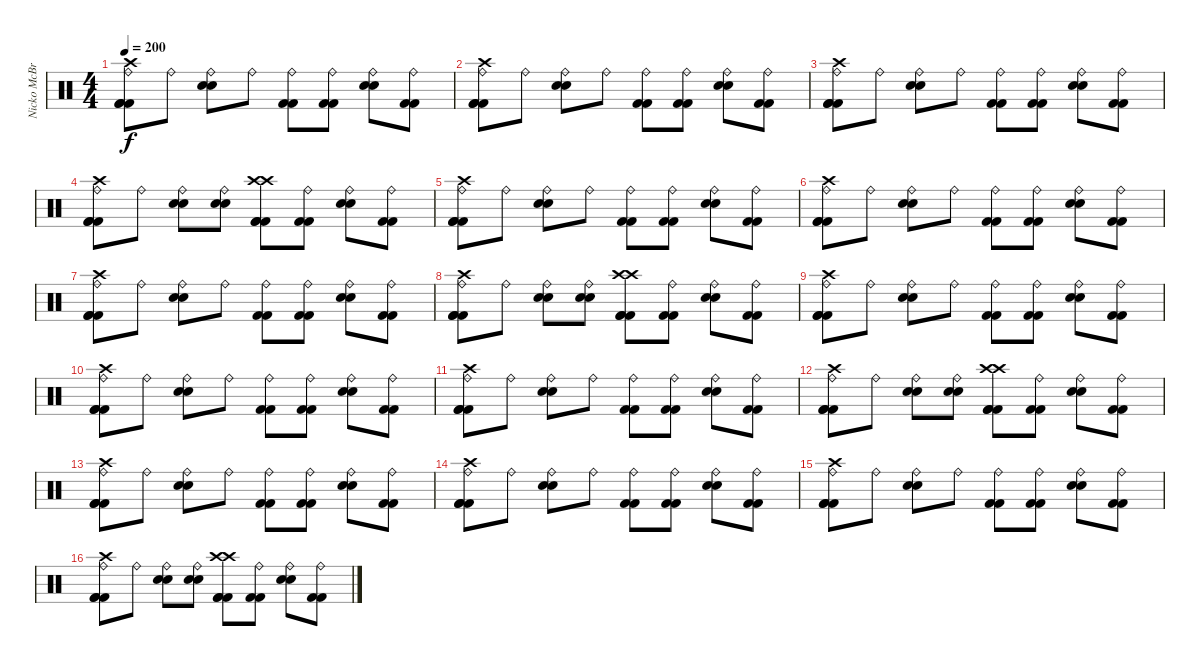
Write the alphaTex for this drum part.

\track ("Nicko McBrain" "Nicko McBr") {instrument percussion}
\staff {score}
\articulation defaults
\ts (4 4)
\tempo 200
\clef neutral
\ks c
("Crash high (hit)" "Ride (bell)" "Kick (hit) 2" "Kick (hit) 2" "Kick (hit) 2").8{dy f} "Ride (bell)".8 ("Ride (bell)" "Snare (hit) 2" "Snare (hit) 2").8 "Ride (bell)".8 ("Ride (bell)" "Kick (hit) 2" "Kick (hit) 2").8 ("Ride (bell)" "Kick (hit) 2" "Kick (hit) 2").8 ("Ride (bell)" "Snare (hit) 2" "Snare (hit) 2").8 ("Ride (bell)" "Kick (hit) 2" "Kick (hit) 2").8 |
("Crash high (hit)" "Ride (bell)" "Kick (hit) 2" "Kick (hit) 2" "Kick (hit) 2").8 "Ride (bell)".8 ("Ride (bell)" "Snare (hit) 2" "Snare (hit) 2").8 "Ride (bell)".8 ("Ride (bell)" "Kick (hit) 2" "Kick (hit) 2").8 ("Ride (bell)" "Kick (hit) 2" "Kick (hit) 2").8 ("Ride (bell)" "Snare (hit) 2" "Snare (hit) 2").8 ("Ride (bell)" "Kick (hit) 2" "Kick (hit) 2").8 |
("Crash high (hit)" "Ride (bell)" "Kick (hit) 2" "Kick (hit) 2" "Kick (hit) 2").8 "Ride (bell)".8 ("Ride (bell)" "Snare (hit) 2" "Snare (hit) 2").8 "Ride (bell)".8 ("Ride (bell)" "Kick (hit) 2" "Kick (hit) 2").8 ("Ride (bell)" "Kick (hit) 2" "Kick (hit) 2").8 ("Ride (bell)" "Snare (hit) 2" "Snare (hit) 2").8 ("Ride (bell)" "Kick (hit) 2" "Kick (hit) 2").8 |
("Crash high (hit)" "Ride (bell)" "Kick (hit) 2" "Kick (hit) 2" "Kick (hit) 2").8 "Ride (bell)".8 ("Ride (bell)" "Snare (hit) 2" "Snare (hit) 2").8 ("Ride (bell)" "Snare (hit) 2" "Snare (hit) 2").8 ("Crash high (hit)" "Crash high (hit)" "Kick (hit) 2" "Kick (hit) 2" "Kick (hit) 2").8 ("Ride (bell)" "Kick (hit) 2" "Kick (hit) 2").8 ("Ride (bell)" "Snare (hit) 2" "Snare (hit) 2").8 ("Ride (bell)" "Kick (hit) 2" "Kick (hit) 2").8 |
("Crash high (hit)" "Ride (bell)" "Kick (hit) 2" "Kick (hit) 2" "Kick (hit) 2").8 "Ride (bell)".8 ("Ride (bell)" "Snare (hit) 2" "Snare (hit) 2").8 "Ride (bell)".8 ("Ride (bell)" "Kick (hit) 2" "Kick (hit) 2").8 ("Ride (bell)" "Kick (hit) 2" "Kick (hit) 2").8 ("Ride (bell)" "Snare (hit) 2" "Snare (hit) 2").8 ("Ride (bell)" "Kick (hit) 2" "Kick (hit) 2").8 |
("Crash high (hit)" "Ride (bell)" "Kick (hit) 2" "Kick (hit) 2" "Kick (hit) 2").8 "Ride (bell)".8 ("Ride (bell)" "Snare (hit) 2" "Snare (hit) 2").8 "Ride (bell)".8 ("Ride (bell)" "Kick (hit) 2" "Kick (hit) 2").8 ("Ride (bell)" "Kick (hit) 2" "Kick (hit) 2").8 ("Ride (bell)" "Snare (hit) 2" "Snare (hit) 2").8 ("Ride (bell)" "Kick (hit) 2" "Kick (hit) 2").8 |
("Crash high (hit)" "Ride (bell)" "Kick (hit) 2" "Kick (hit) 2" "Kick (hit) 2").8 "Ride (bell)".8 ("Ride (bell)" "Snare (hit) 2" "Snare (hit) 2").8 "Ride (bell)".8 ("Ride (bell)" "Kick (hit) 2" "Kick (hit) 2").8 ("Ride (bell)" "Kick (hit) 2" "Kick (hit) 2").8 ("Ride (bell)" "Snare (hit) 2" "Snare (hit) 2").8 ("Ride (bell)" "Kick (hit) 2" "Kick (hit) 2").8 |
("Crash high (hit)" "Ride (bell)" "Kick (hit) 2" "Kick (hit) 2" "Kick (hit) 2").8 "Ride (bell)".8 ("Ride (bell)" "Snare (hit) 2" "Snare (hit) 2").8 ("Ride (bell)" "Snare (hit) 2" "Snare (hit) 2").8 ("Crash high (hit)" "Crash high (hit)" "Kick (hit) 2" "Kick (hit) 2" "Kick (hit) 2").8 ("Ride (bell)" "Kick (hit) 2" "Kick (hit) 2").8 ("Ride (bell)" "Snare (hit) 2" "Snare (hit) 2").8 ("Ride (bell)" "Kick (hit) 2" "Kick (hit) 2").8 |
("Crash high (hit)" "Ride (bell)" "Kick (hit) 2" "Kick (hit) 2" "Kick (hit) 2").8 "Ride (bell)".8 ("Ride (bell)" "Snare (hit) 2" "Snare (hit) 2").8 "Ride (bell)".8 ("Ride (bell)" "Kick (hit) 2" "Kick (hit) 2").8 ("Ride (bell)" "Kick (hit) 2" "Kick (hit) 2").8 ("Ride (bell)" "Snare (hit) 2" "Snare (hit) 2").8 ("Ride (bell)" "Kick (hit) 2" "Kick (hit) 2").8 |
("Crash high (hit)" "Ride (bell)" "Kick (hit) 2" "Kick (hit) 2" "Kick (hit) 2").8 "Ride (bell)".8 ("Ride (bell)" "Snare (hit) 2" "Snare (hit) 2").8 "Ride (bell)".8 ("Ride (bell)" "Kick (hit) 2" "Kick (hit) 2").8 ("Ride (bell)" "Kick (hit) 2" "Kick (hit) 2").8 ("Ride (bell)" "Snare (hit) 2" "Snare (hit) 2").8 ("Ride (bell)" "Kick (hit) 2" "Kick (hit) 2").8 |
("Crash high (hit)" "Ride (bell)" "Kick (hit) 2" "Kick (hit) 2" "Kick (hit) 2").8 "Ride (bell)".8 ("Ride (bell)" "Snare (hit) 2" "Snare (hit) 2").8 "Ride (bell)".8 ("Ride (bell)" "Kick (hit) 2" "Kick (hit) 2").8 ("Ride (bell)" "Kick (hit) 2" "Kick (hit) 2").8 ("Ride (bell)" "Snare (hit) 2" "Snare (hit) 2").8 ("Ride (bell)" "Kick (hit) 2" "Kick (hit) 2").8 |
("Crash high (hit)" "Ride (bell)" "Kick (hit) 2" "Kick (hit) 2" "Kick (hit) 2").8 "Ride (bell)".8 ("Ride (bell)" "Snare (hit) 2" "Snare (hit) 2").8 ("Ride (bell)" "Snare (hit) 2" "Snare (hit) 2").8 ("Crash high (hit)" "Crash high (hit)" "Kick (hit) 2" "Kick (hit) 2" "Kick (hit) 2").8 ("Ride (bell)" "Kick (hit) 2" "Kick (hit) 2").8 ("Ride (bell)" "Snare (hit) 2" "Snare (hit) 2").8 ("Ride (bell)" "Kick (hit) 2" "Kick (hit) 2").8 |
("Crash high (hit)" "Ride (bell)" "Kick (hit) 2" "Kick (hit) 2" "Kick (hit) 2").8 "Ride (bell)".8 ("Ride (bell)" "Snare (hit) 2" "Snare (hit) 2").8 "Ride (bell)".8 ("Ride (bell)" "Kick (hit) 2" "Kick (hit) 2").8 ("Ride (bell)" "Kick (hit) 2" "Kick (hit) 2").8 ("Ride (bell)" "Snare (hit) 2" "Snare (hit) 2").8 ("Ride (bell)" "Kick (hit) 2" "Kick (hit) 2").8 |
("Crash high (hit)" "Ride (bell)" "Kick (hit) 2" "Kick (hit) 2" "Kick (hit) 2").8 "Ride (bell)".8 ("Ride (bell)" "Snare (hit) 2" "Snare (hit) 2").8 "Ride (bell)".8 ("Ride (bell)" "Kick (hit) 2" "Kick (hit) 2").8 ("Ride (bell)" "Kick (hit) 2" "Kick (hit) 2").8 ("Ride (bell)" "Snare (hit) 2" "Snare (hit) 2").8 ("Ride (bell)" "Kick (hit) 2" "Kick (hit) 2").8 |
("Crash high (hit)" "Ride (bell)" "Kick (hit) 2" "Kick (hit) 2" "Kick (hit) 2").8 "Ride (bell)".8 ("Ride (bell)" "Snare (hit) 2" "Snare (hit) 2").8 "Ride (bell)".8 ("Ride (bell)" "Kick (hit) 2" "Kick (hit) 2").8 ("Ride (bell)" "Kick (hit) 2" "Kick (hit) 2").8 ("Ride (bell)" "Snare (hit) 2" "Snare (hit) 2").8 ("Ride (bell)" "Kick (hit) 2" "Kick (hit) 2").8 |
("Crash high (hit)" "Ride (bell)" "Kick (hit) 2" "Kick (hit) 2" "Kick (hit) 2").8 "Ride (bell)".8 ("Ride (bell)" "Snare (hit) 2" "Snare (hit) 2").8 ("Ride (bell)" "Snare (hit) 2" "Snare (hit) 2").8 ("Crash high (hit)" "Crash high (hit)" "Kick (hit) 2" "Kick (hit) 2" "Kick (hit) 2").8 ("Ride (bell)" "Kick (hit) 2" "Kick (hit) 2").8 ("Ride (bell)" "Snare (hit) 2" "Snare (hit) 2").8 ("Ride (bell)" "Kick (hit) 2" "Kick (hit) 2").8
